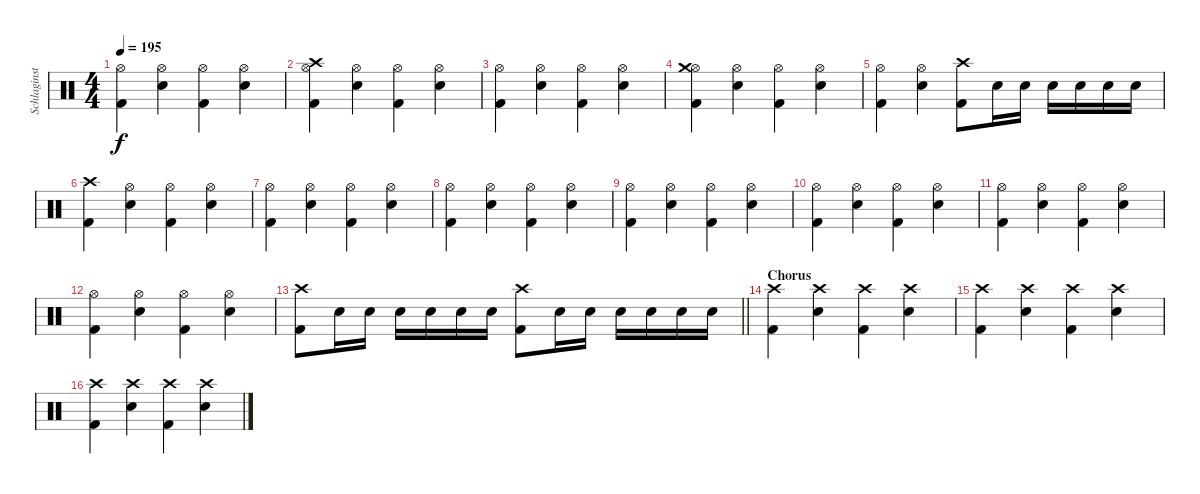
\track ("Schlaginstrumente - Auswahl" "Schlaginst") {instrument percussion}
\staff {score}
\articulation defaults
\ts (4 4)
\tempo 195
\clef neutral
\ks c
("Hi-Hat (open)" "Kick (hit) 2").4{dy f} ("Hi-Hat (open)" "Snare (hit) 2").4 ("Hi-Hat (open)" "Kick (hit) 2").4 ("Hi-Hat (open)" "Snare (hit) 2").4 |
("Hi-Hat (open)" "Kick (hit) 2" "Crash high (hit)").4 ("Hi-Hat (open)" "Snare (hit) 2").4 ("Hi-Hat (open)" "Kick (hit) 2").4 ("Hi-Hat (open)" "Snare (hit) 2").4 |
("Hi-Hat (open)" "Kick (hit) 2").4 ("Hi-Hat (open)" "Snare (hit) 2").4 ("Hi-Hat (open)" "Kick (hit) 2").4 ("Hi-Hat (open)" "Snare (hit) 2").4 |
("Hi-Hat (open)" "Kick (hit) 2" "Crash medium (hit)").4 ("Hi-Hat (open)" "Snare (hit) 2").4 ("Hi-Hat (open)" "Kick (hit) 2").4 ("Hi-Hat (open)" "Snare (hit) 2").4 |
("Hi-Hat (open)" "Kick (hit) 2").4 ("Hi-Hat (open)" "Snare (hit) 2").4 ("Crash high (hit)" "Kick (hit) 2").8 "Snare (hit) 2".16 "Snare (hit) 2".16 "Snare (hit) 2".16 "Snare (hit) 2".16 "Snare (hit) 2".16 "Snare (hit) 2".16 |
("Kick (hit) 2" "Crash high (hit)").4 ("Hi-Hat (open)" "Snare (hit) 2").4 ("Hi-Hat (open)" "Kick (hit) 2").4 ("Hi-Hat (open)" "Snare (hit) 2").4 |
("Hi-Hat (open)" "Kick (hit) 2").4 ("Hi-Hat (open)" "Snare (hit) 2").4 ("Hi-Hat (open)" "Kick (hit) 2").4 ("Hi-Hat (open)" "Snare (hit) 2").4 |
("Hi-Hat (open)" "Kick (hit) 2").4 ("Hi-Hat (open)" "Snare (hit) 2").4 ("Hi-Hat (open)" "Kick (hit) 2").4 ("Hi-Hat (open)" "Snare (hit) 2").4 |
("Hi-Hat (open)" "Kick (hit) 2").4 ("Hi-Hat (open)" "Snare (hit) 2").4 ("Hi-Hat (open)" "Kick (hit) 2").4 ("Hi-Hat (open)" "Snare (hit) 2").4 |
("Hi-Hat (open)" "Kick (hit) 2").4 ("Hi-Hat (open)" "Snare (hit) 2").4 ("Hi-Hat (open)" "Kick (hit) 2").4 ("Hi-Hat (open)" "Snare (hit) 2").4 |
("Hi-Hat (open)" "Kick (hit) 2").4 ("Hi-Hat (open)" "Snare (hit) 2").4 ("Hi-Hat (open)" "Kick (hit) 2").4 ("Hi-Hat (open)" "Snare (hit) 2").4 |
("Hi-Hat (open)" "Kick (hit) 2").4 ("Hi-Hat (open)" "Snare (hit) 2").4 ("Hi-Hat (open)" "Kick (hit) 2").4 ("Hi-Hat (open)" "Snare (hit) 2").4 |
\barLineRight lightlight
("Crash high (hit)" "Kick (hit) 2").8 "Snare (hit) 2".16 "Snare (hit) 2".16 "Snare (hit) 2".16 "Snare (hit) 2".16 "Snare (hit) 2".16 "Snare (hit) 2".16 ("Crash high (hit)" "Kick (hit) 2").8 "Snare (hit) 2".16 "Snare (hit) 2".16 "Snare (hit) 2".16 "Snare (hit) 2".16 "Snare (hit) 2".16 "Snare (hit) 2".16 |
\section ("" "Chorus")
("Crash high (hit)" "Kick (hit) 2").4 ("Crash high (hit)" "Snare (hit) 2").4 ("Crash high (hit)" "Kick (hit) 2").4 ("Crash high (hit)" "Snare (hit) 2").4 |
("Crash high (hit)" "Kick (hit) 2").4 ("Crash high (hit)" "Snare (hit) 2").4 ("Crash high (hit)" "Kick (hit) 2").4 ("Crash high (hit)" "Snare (hit) 2").4 |
("Crash high (hit)" "Kick (hit) 2").4 ("Crash high (hit)" "Snare (hit) 2").4 ("Crash high (hit)" "Kick (hit) 2").4 ("Crash high (hit)" "Snare (hit) 2").4
